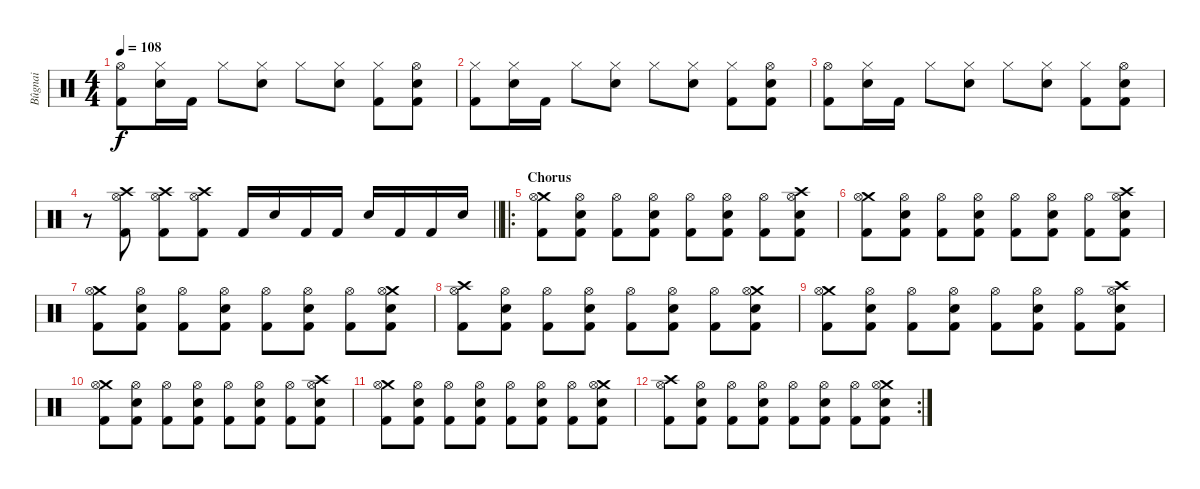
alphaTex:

\track ("Bûgnai" "Bûgnai") {instrument percussion}
\staff {score}
\articulation defaults
\ts (4 4)
\tempo 108
\clef neutral
\ks c
("Hi-Hat (open)" "Kick (hit) 2").8{dy f} ("Hi-Hat (closed)" "Snare (hit) 2").16 "Kick (hit) 2".16 "Hi-Hat (closed)".8 ("Hi-Hat (closed)" "Snare (hit) 2").8 "Hi-Hat (closed)".8 ("Hi-Hat (closed)" "Snare (hit) 2").8 ("Hi-Hat (closed)" "Kick (hit) 2").8 ("Hi-Hat (open)" "Snare (hit) 2" "Kick (hit) 2").8 |
("Hi-Hat (closed)" "Kick (hit) 2").8 ("Hi-Hat (closed)" "Snare (hit) 2").16 "Kick (hit) 2".16 "Hi-Hat (closed)".8 ("Hi-Hat (closed)" "Snare (hit) 2").8 "Hi-Hat (closed)".8 ("Hi-Hat (closed)" "Snare (hit) 2").8 ("Hi-Hat (closed)" "Kick (hit) 2").8 ("Hi-Hat (open)" "Snare (hit) 2" "Kick (hit) 2").8 |
("Hi-Hat (open)" "Kick (hit) 2").8 ("Hi-Hat (closed)" "Snare (hit) 2").16 "Kick (hit) 2".16 "Hi-Hat (closed)".8 ("Hi-Hat (closed)" "Snare (hit) 2").8 "Hi-Hat (closed)".8 ("Hi-Hat (closed)" "Snare (hit) 2").8 ("Hi-Hat (closed)" "Kick (hit) 2").8 ("Hi-Hat (open)" "Snare (hit) 2" "Kick (hit) 2").8 |
\barLineRight lightlight
r.8 ("Crash high (hit)" "Hi-Hat (open)" "Kick (hit) 2").8 ("Crash high (hit)" "Hi-Hat (open)" "Kick (hit) 2").8 ("Crash high (hit)" "Hi-Hat (open)" "Kick (hit) 2").8 "Kick (hit) 2".16 "Snare (hit) 2".16 "Kick (hit) 2".16 "Kick (hit) 2".16 "Snare (hit) 2".16 "Kick (hit) 2".16 "Kick (hit) 2".16 "Snare (hit) 2".16 |
\ro
\section ("" "Chorus")
("Crash medium (hit)" "Hi-Hat (open)" "Kick (hit) 2").8 ("Hi-Hat (open)" "Snare (hit) 2" "Kick (hit) 2").8 ("Hi-Hat (open)" "Kick (hit) 2").8 ("Hi-Hat (open)" "Snare (hit) 2" "Kick (hit) 2").8 ("Hi-Hat (open)" "Kick (hit) 2").8 ("Hi-Hat (open)" "Snare (hit) 2" "Kick (hit) 2").8 ("Hi-Hat (open)" "Kick (hit) 2").8 ("Crash high (hit)" "Hi-Hat (open)" "Snare (hit) 2" "Kick (hit) 2").8 |
("Crash medium (hit)" "Hi-Hat (open)" "Kick (hit) 2").8 ("Hi-Hat (open)" "Snare (hit) 2" "Kick (hit) 2").8 ("Hi-Hat (open)" "Kick (hit) 2").8 ("Hi-Hat (open)" "Snare (hit) 2" "Kick (hit) 2").8 ("Hi-Hat (open)" "Kick (hit) 2").8 ("Hi-Hat (open)" "Snare (hit) 2" "Kick (hit) 2").8 ("Hi-Hat (open)" "Kick (hit) 2").8 ("Crash high (hit)" "Hi-Hat (open)" "Snare (hit) 2" "Kick (hit) 2").8 |
("Crash medium (hit)" "Hi-Hat (open)" "Kick (hit) 2").8 ("Hi-Hat (open)" "Snare (hit) 2" "Kick (hit) 2").8 ("Hi-Hat (open)" "Kick (hit) 2").8 ("Hi-Hat (open)" "Snare (hit) 2" "Kick (hit) 2").8 ("Hi-Hat (open)" "Kick (hit) 2").8 ("Hi-Hat (open)" "Snare (hit) 2" "Kick (hit) 2").8 ("Hi-Hat (open)" "Kick (hit) 2").8 ("Crash medium (hit)" "Hi-Hat (open)" "Snare (hit) 2" "Kick (hit) 2").8 |
("Crash high (hit)" "Hi-Hat (open)" "Kick (hit) 2").8 ("Hi-Hat (open)" "Snare (hit) 2" "Kick (hit) 2").8 ("Hi-Hat (open)" "Kick (hit) 2").8 ("Hi-Hat (open)" "Snare (hit) 2" "Kick (hit) 2").8 ("Hi-Hat (open)" "Kick (hit) 2").8 ("Hi-Hat (open)" "Snare (hit) 2" "Kick (hit) 2").8 ("Hi-Hat (open)" "Kick (hit) 2").8 ("Crash medium (hit)" "Hi-Hat (open)" "Snare (hit) 2" "Kick (hit) 2").8 |
("Crash medium (hit)" "Hi-Hat (open)" "Kick (hit) 2").8 ("Hi-Hat (open)" "Snare (hit) 2" "Kick (hit) 2").8 ("Hi-Hat (open)" "Kick (hit) 2").8 ("Hi-Hat (open)" "Snare (hit) 2" "Kick (hit) 2").8 ("Hi-Hat (open)" "Kick (hit) 2").8 ("Hi-Hat (open)" "Snare (hit) 2" "Kick (hit) 2").8 ("Hi-Hat (open)" "Kick (hit) 2").8 ("Crash high (hit)" "Hi-Hat (open)" "Snare (hit) 2" "Kick (hit) 2").8 |
("Crash medium (hit)" "Hi-Hat (open)" "Kick (hit) 2").8 ("Hi-Hat (open)" "Snare (hit) 2" "Kick (hit) 2").8 ("Hi-Hat (open)" "Kick (hit) 2").8 ("Hi-Hat (open)" "Snare (hit) 2" "Kick (hit) 2").8 ("Hi-Hat (open)" "Kick (hit) 2").8 ("Hi-Hat (open)" "Snare (hit) 2" "Kick (hit) 2").8 ("Hi-Hat (open)" "Kick (hit) 2").8 ("Crash high (hit)" "Hi-Hat (open)" "Snare (hit) 2" "Kick (hit) 2").8 |
("Crash medium (hit)" "Hi-Hat (open)" "Kick (hit) 2").8 ("Hi-Hat (open)" "Snare (hit) 2" "Kick (hit) 2").8 ("Hi-Hat (open)" "Kick (hit) 2").8 ("Hi-Hat (open)" "Snare (hit) 2" "Kick (hit) 2").8 ("Hi-Hat (open)" "Kick (hit) 2").8 ("Hi-Hat (open)" "Snare (hit) 2" "Kick (hit) 2").8 ("Hi-Hat (open)" "Kick (hit) 2").8 ("Crash medium (hit)" "Hi-Hat (open)" "Snare (hit) 2" "Kick (hit) 2").8 |
\rc 2
("Crash high (hit)" "Hi-Hat (open)" "Kick (hit) 2").8 ("Hi-Hat (open)" "Snare (hit) 2" "Kick (hit) 2").8 ("Hi-Hat (open)" "Kick (hit) 2").8 ("Hi-Hat (open)" "Snare (hit) 2" "Kick (hit) 2").8 ("Hi-Hat (open)" "Kick (hit) 2").8 ("Hi-Hat (open)" "Snare (hit) 2" "Kick (hit) 2").8 ("Hi-Hat (open)" "Kick (hit) 2").8 ("Crash medium (hit)" "Hi-Hat (open)" "Snare (hit) 2" "Kick (hit) 2").8
